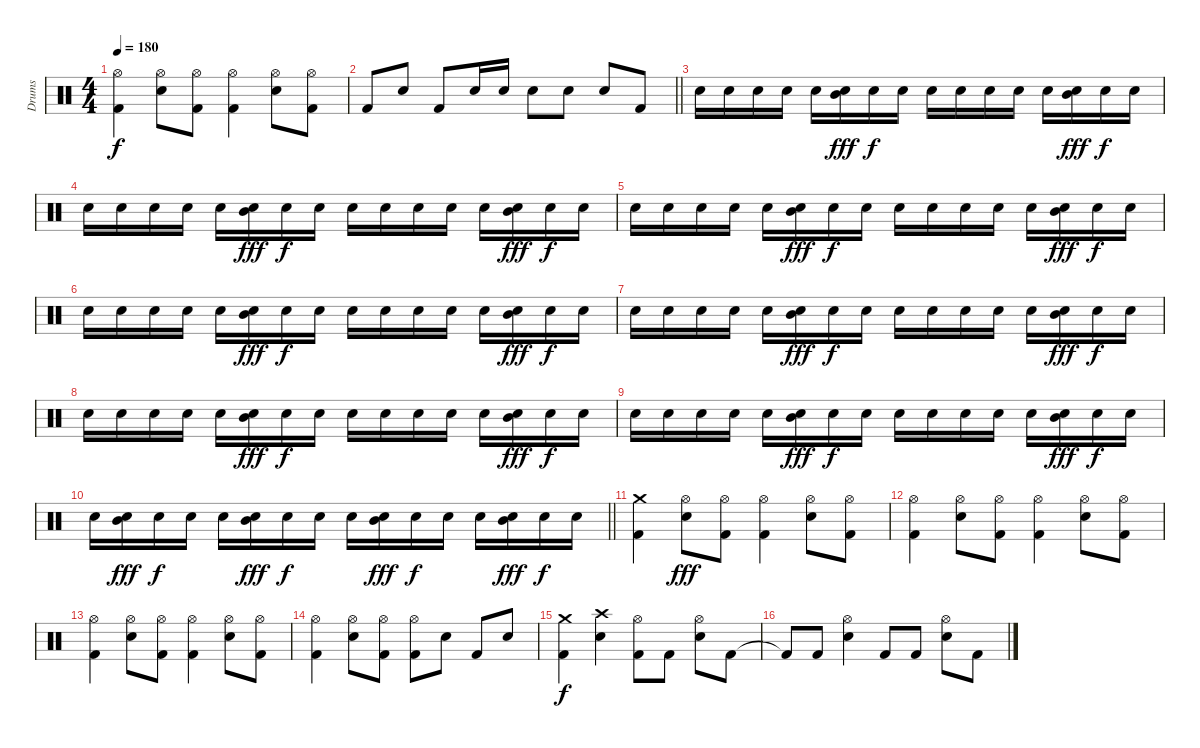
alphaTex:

\track ("Drums" "Drums") {instrument percussion}
\staff {score}
\articulation defaults
\ts (4 4)
\tempo 180
\clef neutral
\ks c
("Hi-Hat (open)" "Kick (hit) 2").4{dy f} ("Hi-Hat (open)" "Electric Snare (hit)").8 ("Hi-Hat (open)" "Kick (hit) 2").8 ("Hi-Hat (open)" "Kick (hit) 2").4 ("Hi-Hat (open)" "Electric Snare (hit)").8 ("Hi-Hat (open)" "Kick (hit) 2").8 |
\barLineRight lightlight "Kick (hit) 2".8 "Electric Snare (hit)".8 "Kick (hit) 2".8 "Electric Snare (hit)".16 "Electric Snare (hit)".16 "Electric Snare (hit)".8 "Electric Snare (hit)".8 "Electric Snare (hit)".8 "Kick (hit) 2".8
|
"Electric Snare (hit)".16 "Electric Snare (hit)".16 "Electric Snare (hit)".16 "Electric Snare (hit)".16 "Electric Snare (hit)".16 ("Mid Tom (hit)" "Electric Snare (hit)").16{dy fff} "Electric Snare (hit)".16{dy f} "Electric Snare (hit)".16 "Electric Snare (hit)".16 "Electric Snare (hit)".16 "Electric Snare (hit)".16 "Electric Snare (hit)".16 "Electric Snare (hit)".16 ("Mid Tom (hit)" "Electric Snare (hit)").16{dy fff} "Electric Snare (hit)".16{dy f} "Electric Snare (hit)".16 |
"Electric Snare (hit)".16 "Electric Snare (hit)".16 "Electric Snare (hit)".16 "Electric Snare (hit)".16 "Electric Snare (hit)".16 ("Mid Tom (hit)" "Electric Snare (hit)").16{dy fff} "Electric Snare (hit)".16{dy f} "Electric Snare (hit)".16 "Electric Snare (hit)".16 "Electric Snare (hit)".16 "Electric Snare (hit)".16 "Electric Snare (hit)".16 "Electric Snare (hit)".16 ("Mid Tom (hit)" "Electric Snare (hit)").16{dy fff} "Electric Snare (hit)".16{dy f} "Electric Snare (hit)".16 |
"Electric Snare (hit)".16 "Electric Snare (hit)".16 "Electric Snare (hit)".16 "Electric Snare (hit)".16 "Electric Snare (hit)".16 ("Mid Tom (hit)" "Electric Snare (hit)").16{dy fff} "Electric Snare (hit)".16{dy f} "Electric Snare (hit)".16 "Electric Snare (hit)".16 "Electric Snare (hit)".16 "Electric Snare (hit)".16 "Electric Snare (hit)".16 "Electric Snare (hit)".16 ("Mid Tom (hit)" "Electric Snare (hit)").16{dy fff} "Electric Snare (hit)".16{dy f} "Electric Snare (hit)".16 |
"Electric Snare (hit)".16 "Electric Snare (hit)".16 "Electric Snare (hit)".16 "Electric Snare (hit)".16 "Electric Snare (hit)".16 ("Mid Tom (hit)" "Electric Snare (hit)").16{dy fff} "Electric Snare (hit)".16{dy f} "Electric Snare (hit)".16 "Electric Snare (hit)".16 "Electric Snare (hit)".16 "Electric Snare (hit)".16 "Electric Snare (hit)".16 "Electric Snare (hit)".16 ("Mid Tom (hit)" "Electric Snare (hit)").16{dy fff} "Electric Snare (hit)".16{dy f} "Electric Snare (hit)".16 |
"Electric Snare (hit)".16 "Electric Snare (hit)".16 "Electric Snare (hit)".16 "Electric Snare (hit)".16 "Electric Snare (hit)".16 ("Mid Tom (hit)" "Electric Snare (hit)").16{dy fff} "Electric Snare (hit)".16{dy f} "Electric Snare (hit)".16 "Electric Snare (hit)".16 "Electric Snare (hit)".16 "Electric Snare (hit)".16 "Electric Snare (hit)".16 "Electric Snare (hit)".16 ("Mid Tom (hit)" "Electric Snare (hit)").16{dy fff} "Electric Snare (hit)".16{dy f} "Electric Snare (hit)".16 |
"Electric Snare (hit)".16 "Electric Snare (hit)".16 "Electric Snare (hit)".16 "Electric Snare (hit)".16 "Electric Snare (hit)".16 ("Mid Tom (hit)" "Electric Snare (hit)").16{dy fff} "Electric Snare (hit)".16{dy f} "Electric Snare (hit)".16 "Electric Snare (hit)".16 "Electric Snare (hit)".16 "Electric Snare (hit)".16 "Electric Snare (hit)".16 "Electric Snare (hit)".16 ("Mid Tom (hit)" "Electric Snare (hit)").16{dy fff} "Electric Snare (hit)".16{dy f} "Electric Snare (hit)".16 |
"Electric Snare (hit)".16 "Electric Snare (hit)".16 "Electric Snare (hit)".16 "Electric Snare (hit)".16 "Electric Snare (hit)".16 ("Mid Tom (hit)" "Electric Snare (hit)").16{dy fff} "Electric Snare (hit)".16{dy f} "Electric Snare (hit)".16 "Electric Snare (hit)".16 "Electric Snare (hit)".16 "Electric Snare (hit)".16 "Electric Snare (hit)".16 "Electric Snare (hit)".16 ("Mid Tom (hit)" "Electric Snare (hit)").16{dy fff} "Electric Snare (hit)".16{dy f} "Electric Snare (hit)".16 |
\barLineRight lightlight "Electric Snare (hit)".16
("Mid Tom (hit)" "Electric Snare (hit)").16{dy fff} "Electric Snare (hit)".16{dy f} "Electric Snare (hit)".16 "Electric Snare (hit)".16 ("Mid Tom (hit)" "Electric Snare (hit)").16{dy fff} "Electric Snare (hit)".16{dy f} "Electric Snare (hit)".16 "Electric Snare (hit)".16 ("Mid Tom (hit)" "Electric Snare (hit)").16{dy fff} "Electric Snare (hit)".16{dy f} "Electric Snare (hit)".16 "Electric Snare (hit)".16 ("Mid Tom (hit)" "Electric Snare (hit)").16{dy fff} "Electric Snare (hit)".16{dy f} "Electric Snare (hit)".16 |
("Crash medium (hit)" "Kick (hit) 2").4 ("Hi-Hat (open)" "Electric Snare (hit)").8{dy fff} ("Hi-Hat (open)" "Kick (hit) 2").8 ("Hi-Hat (open)" "Kick (hit) 2").4 ("Hi-Hat (open)" "Electric Snare (hit)").8 ("Hi-Hat (open)" "Kick (hit) 2").8 |
("Hi-Hat (open)" "Kick (hit) 2").4 ("Hi-Hat (open)" "Electric Snare (hit)").8 ("Hi-Hat (open)" "Kick (hit) 2").8 ("Hi-Hat (open)" "Kick (hit) 2").4 ("Hi-Hat (open)" "Electric Snare (hit)").8 ("Hi-Hat (open)" "Kick (hit) 2").8 |
("Hi-Hat (open)" "Kick (hit) 2").4 ("Hi-Hat (open)" "Electric Snare (hit)").8 ("Hi-Hat (open)" "Kick (hit) 2").8 ("Hi-Hat (open)" "Kick (hit) 2").4 ("Hi-Hat (open)" "Electric Snare (hit)").8 ("Hi-Hat (open)" "Kick (hit) 2").8 |
("Hi-Hat (open)" "Kick (hit) 2").4 ("Hi-Hat (open)" "Electric Snare (hit)").8 ("Hi-Hat (open)" "Kick (hit) 2").8 ("Hi-Hat (open)" "Kick (hit) 2").8 "Electric Snare (hit)".8 "Kick (hit) 2".8 "Electric Snare (hit)".8 |
("Crash medium (hit)" "Kick (hit) 2").4{dy f} ("Crash high (hit)" "Electric Snare (hit)").4 ("Hi-Hat (open)" "Kick (hit) 2").8 "Kick (hit) 2".8 ("Hi-Hat (open)" "Electric Snare (hit)").8 "Kick (hit) 2".8 |
"Kick (hit) 2"{t}.8 "Kick (hit) 2".8 ("Hi-Hat (open)" "Electric Snare (hit)").4 "Kick (hit) 2".8 "Kick (hit) 2".8 ("Hi-Hat (open)" "Electric Snare (hit)").8 "Kick (hit) 2".8
